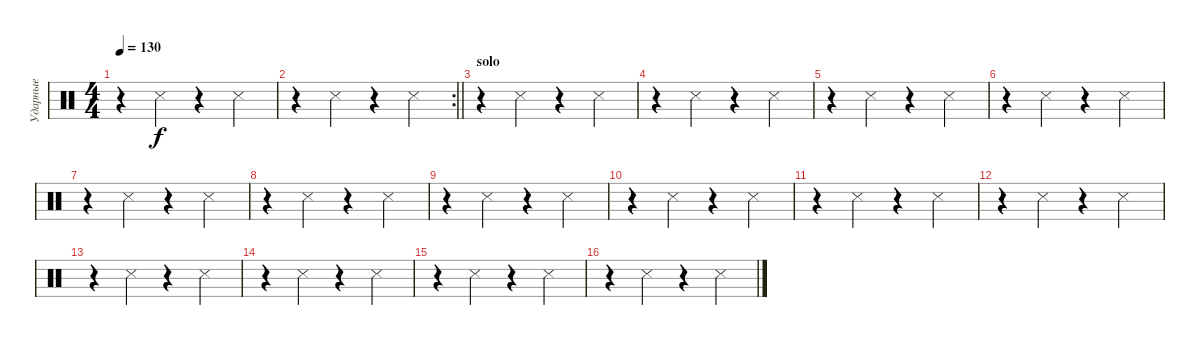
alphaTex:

\track ("Ударные" "Ударные") {instrument percussion}
\staff {score}
\articulation defaults
\ts (4 4)
\tempo 130
\clef neutral
\ks c
r.4{dy f} "Snare (side stick) 3".4 r.4 "Snare (side stick) 3".4 |
\rc 2
\barLineRight lightlight
r.4 "Snare (side stick) 3".4 r.4 "Snare (side stick) 3".4 |
\section ("" "solo")
r.4 "Snare (side stick) 3".4 r.4 "Snare (side stick) 3".4 |
r.4 "Snare (side stick) 3".4 r.4 "Snare (side stick) 3".4 |
r.4 "Snare (side stick) 3".4 r.4 "Snare (side stick) 3".4 |
r.4 "Snare (side stick) 3".4 r.4 "Snare (side stick) 3".4 |
r.4 "Snare (side stick) 3".4 r.4 "Snare (side stick) 3".4 |
r.4 "Snare (side stick) 3".4 r.4 "Snare (side stick) 3".4 |
r.4 "Snare (side stick) 3".4 r.4 "Snare (side stick) 3".4 |
r.4 "Snare (side stick) 3".4 r.4 "Snare (side stick) 3".4 |
r.4 "Snare (side stick) 3".4 r.4 "Snare (side stick) 3".4 |
r.4 "Snare (side stick) 3".4 r.4 "Snare (side stick) 3".4 |
r.4 "Snare (side stick) 3".4 r.4 "Snare (side stick) 3".4 |
r.4 "Snare (side stick) 3".4 r.4 "Snare (side stick) 3".4 |
r.4 "Snare (side stick) 3".4 r.4 "Snare (side stick) 3".4 |
r.4 "Snare (side stick) 3".4 r.4 "Snare (side stick) 3".4
